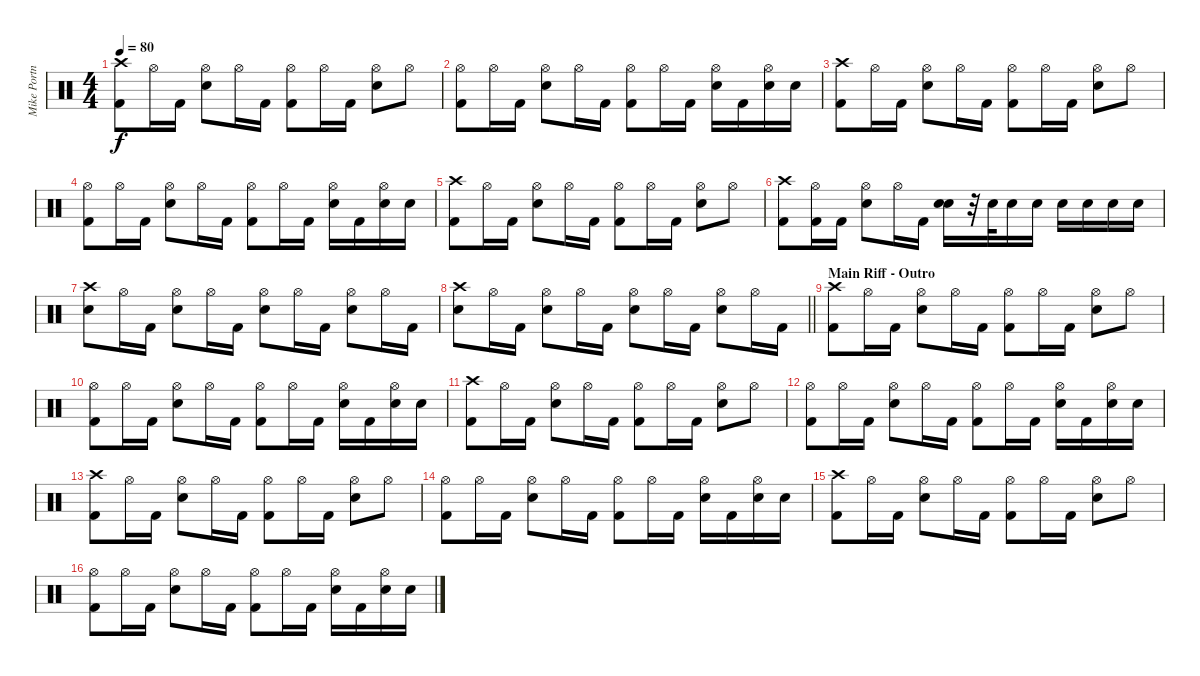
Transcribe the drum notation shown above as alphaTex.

\track ("Mike Portnoy" "Mike Portn") {instrument percussion}
\staff {score}
\articulation defaults
\ts (4 4)
\tempo 80
\clef neutral
\ks c
("Kick (hit) 2" "Crash high (hit)").8{dy f} "Hi-Hat (open)".16 "Kick (hit) 2".16 ("Electric Snare (hit)" "Hi-Hat (open)").8 "Hi-Hat (open)".16 "Kick (hit) 2".16 ("Kick (hit) 2" "Hi-Hat (open)").8 "Hi-Hat (open)".16 "Kick (hit) 2".16 ("Electric Snare (hit)" "Hi-Hat (open)").8 "Hi-Hat (open)".8 |
("Kick (hit) 2" "Hi-Hat (open)").8 "Hi-Hat (open)".16 "Kick (hit) 2".16 ("Electric Snare (hit)" "Hi-Hat (open)").8 "Hi-Hat (open)".16 "Kick (hit) 2".16 ("Kick (hit) 2" "Hi-Hat (open)").8 "Hi-Hat (open)".16 "Kick (hit) 2".16 ("Electric Snare (hit)" "Hi-Hat (open)").16 "Kick (hit) 2".16 ("Electric Snare (hit)" "Hi-Hat (open)").16 "Electric Snare (hit)".16 |
("Kick (hit) 2" "Crash high (hit)").8 "Hi-Hat (open)".16 "Kick (hit) 2".16 ("Electric Snare (hit)" "Hi-Hat (open)").8 "Hi-Hat (open)".16 "Kick (hit) 2".16 ("Kick (hit) 2" "Hi-Hat (open)").8 "Hi-Hat (open)".16 "Kick (hit) 2".16 ("Electric Snare (hit)" "Hi-Hat (open)").8 "Hi-Hat (open)".8 |
("Kick (hit) 2" "Hi-Hat (open)").8 "Hi-Hat (open)".16 "Kick (hit) 2".16 ("Electric Snare (hit)" "Hi-Hat (open)").8 "Hi-Hat (open)".16 "Kick (hit) 2".16 ("Kick (hit) 2" "Hi-Hat (open)").8 "Hi-Hat (open)".16 "Kick (hit) 2".16 ("Electric Snare (hit)" "Hi-Hat (open)").16 "Kick (hit) 2".16 ("Electric Snare (hit)" "Hi-Hat (open)").16 "Electric Snare (hit)".16 |
("Kick (hit) 2" "Crash high (hit)").8 "Hi-Hat (open)".16 "Kick (hit) 2".16 ("Electric Snare (hit)" "Hi-Hat (open)").8 "Hi-Hat (open)".16 "Kick (hit) 2".16 ("Kick (hit) 2" "Hi-Hat (open)").8 "Hi-Hat (open)".16 "Kick (hit) 2".16 ("Electric Snare (hit)" "Hi-Hat (open)").8 "Hi-Hat (open)".8 |
("Kick (hit) 2" "Crash high (hit)").8 ("Kick (hit) 2" "Hi-Hat (open)").16 "Kick (hit) 2".16 ("Electric Snare (hit)" "Hi-Hat (open)").8 "Hi-Hat (open)".16 "Kick (hit) 2".16 ("Electric Snare (hit)" "Electric Snare (hit)").16{bu 240} r.32 "Electric Snare (hit)".32 "Electric Snare (hit)".16 "Electric Snare (hit)".16 "Electric Snare (hit)".16 "Electric Snare (hit)".16 "Electric Snare (hit)".16 "Electric Snare (hit)".16 |
("Crash high (hit)" "Electric Snare (hit)").8 "Hi-Hat (open)".16 "Kick (hit) 2".16 ("Hi-Hat (open)" "Electric Snare (hit)").8 "Hi-Hat (open)".16 "Kick (hit) 2".16 ("Hi-Hat (open)" "Electric Snare (hit)").8 "Hi-Hat (open)".16 "Kick (hit) 2".16 ("Hi-Hat (open)" "Electric Snare (hit)").8 "Hi-Hat (open)".16 "Kick (hit) 2".16 |
\barLineRight lightlight
("Crash high (hit)" "Electric Snare (hit)").8 "Hi-Hat (open)".16 "Kick (hit) 2".16 ("Hi-Hat (open)" "Electric Snare (hit)").8 "Hi-Hat (open)".16 "Kick (hit) 2".16 ("Hi-Hat (open)" "Electric Snare (hit)").8 "Hi-Hat (open)".16 "Kick (hit) 2".16 ("Hi-Hat (open)" "Electric Snare (hit)").8 "Hi-Hat (open)".16 "Kick (hit) 2".16 |
\section ("" "Main Riff - Outro")
("Kick (hit) 2" "Crash high (hit)").8 "Hi-Hat (open)".16 "Kick (hit) 2".16 ("Electric Snare (hit)" "Hi-Hat (open)").8 "Hi-Hat (open)".16 "Kick (hit) 2".16 ("Kick (hit) 2" "Hi-Hat (open)").8 "Hi-Hat (open)".16 "Kick (hit) 2".16 ("Electric Snare (hit)" "Hi-Hat (open)").8 "Hi-Hat (open)".8 |
("Kick (hit) 2" "Hi-Hat (open)").8 "Hi-Hat (open)".16 "Kick (hit) 2".16 ("Electric Snare (hit)" "Hi-Hat (open)").8 "Hi-Hat (open)".16 "Kick (hit) 2".16 ("Kick (hit) 2" "Hi-Hat (open)").8 "Hi-Hat (open)".16 "Kick (hit) 2".16 ("Electric Snare (hit)" "Hi-Hat (open)").16 "Kick (hit) 2".16 ("Electric Snare (hit)" "Hi-Hat (open)").16 "Electric Snare (hit)".16 |
("Kick (hit) 2" "Crash high (hit)").8 "Hi-Hat (open)".16 "Kick (hit) 2".16 ("Electric Snare (hit)" "Hi-Hat (open)").8 "Hi-Hat (open)".16 "Kick (hit) 2".16 ("Kick (hit) 2" "Hi-Hat (open)").8 "Hi-Hat (open)".16 "Kick (hit) 2".16 ("Electric Snare (hit)" "Hi-Hat (open)").8 "Hi-Hat (open)".8 |
("Kick (hit) 2" "Hi-Hat (open)").8 "Hi-Hat (open)".16 "Kick (hit) 2".16 ("Electric Snare (hit)" "Hi-Hat (open)").8 "Hi-Hat (open)".16 "Kick (hit) 2".16 ("Kick (hit) 2" "Hi-Hat (open)").8 "Hi-Hat (open)".16 "Kick (hit) 2".16 ("Electric Snare (hit)" "Hi-Hat (open)").16 "Kick (hit) 2".16 ("Electric Snare (hit)" "Hi-Hat (open)").16 "Electric Snare (hit)".16 |
("Kick (hit) 2" "Crash high (hit)").8 "Hi-Hat (open)".16 "Kick (hit) 2".16 ("Electric Snare (hit)" "Hi-Hat (open)").8 "Hi-Hat (open)".16 "Kick (hit) 2".16 ("Kick (hit) 2" "Hi-Hat (open)").8 "Hi-Hat (open)".16 "Kick (hit) 2".16 ("Electric Snare (hit)" "Hi-Hat (open)").8 "Hi-Hat (open)".8 |
("Kick (hit) 2" "Hi-Hat (open)").8 "Hi-Hat (open)".16 "Kick (hit) 2".16 ("Electric Snare (hit)" "Hi-Hat (open)").8 "Hi-Hat (open)".16 "Kick (hit) 2".16 ("Kick (hit) 2" "Hi-Hat (open)").8 "Hi-Hat (open)".16 "Kick (hit) 2".16 ("Electric Snare (hit)" "Hi-Hat (open)").16 "Kick (hit) 2".16 ("Electric Snare (hit)" "Hi-Hat (open)").16 "Electric Snare (hit)".16 |
("Kick (hit) 2" "Crash high (hit)").8 "Hi-Hat (open)".16 "Kick (hit) 2".16 ("Electric Snare (hit)" "Hi-Hat (open)").8 "Hi-Hat (open)".16 "Kick (hit) 2".16 ("Kick (hit) 2" "Hi-Hat (open)").8 "Hi-Hat (open)".16 "Kick (hit) 2".16 ("Electric Snare (hit)" "Hi-Hat (open)").8 "Hi-Hat (open)".8 |
("Kick (hit) 2" "Hi-Hat (open)").8 "Hi-Hat (open)".16 "Kick (hit) 2".16 ("Electric Snare (hit)" "Hi-Hat (open)").8 "Hi-Hat (open)".16 "Kick (hit) 2".16 ("Kick (hit) 2" "Hi-Hat (open)").8 "Hi-Hat (open)".16 "Kick (hit) 2".16 ("Electric Snare (hit)" "Hi-Hat (open)").16 "Kick (hit) 2".16 ("Electric Snare (hit)" "Hi-Hat (open)").16 "Electric Snare (hit)".16
